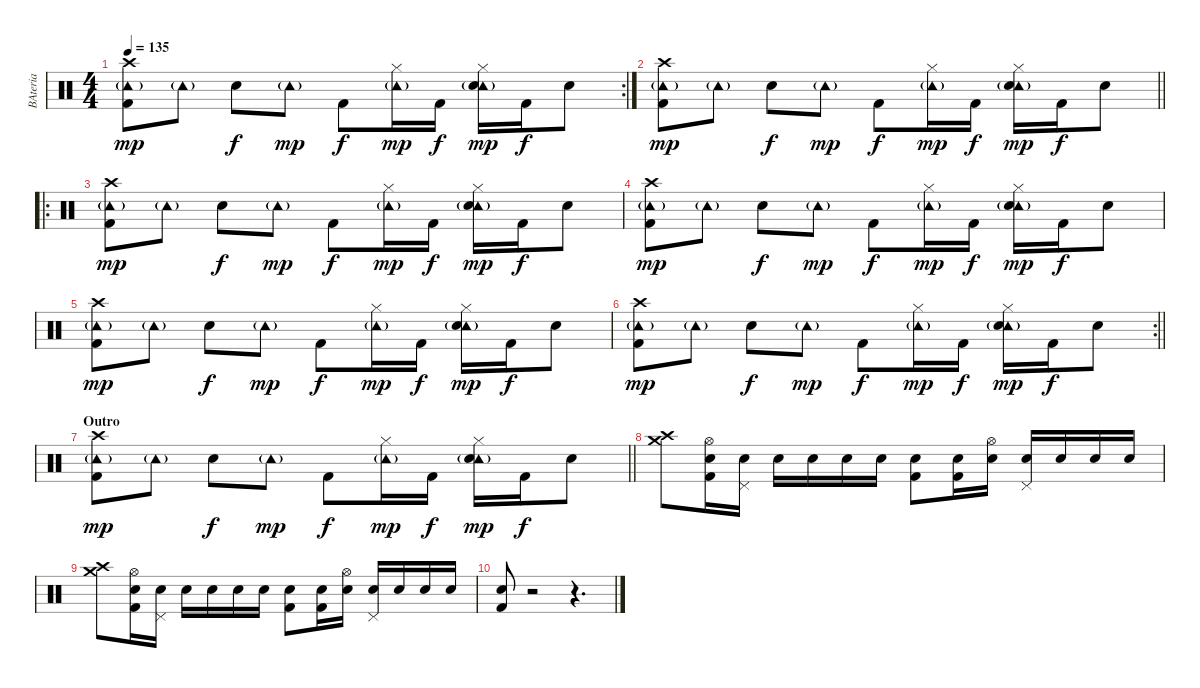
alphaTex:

\track ("BAteria" "BAteria") {instrument percussion}
\staff {score}
\articulation defaults
\rc 2
\ts (4 4)
\tempo 135
\clef neutral
\ks c
("Crash high (hit)" "Tambourine (hit)"{g} "Kick (hit) 2").8{dy mp} "Tambourine (hit)"{g}.8 "Electric Snare (hit)".8{dy f} "Tambourine (hit)"{g}.8{dy mp} "Kick (hit) 2".8{dy f} ("Hi-Hat (closed)" "Tambourine (hit)"{g}).16{dy mp} "Kick (hit) 2".16{dy f} ("Hi-Hat (closed)" "Tambourine (hit)"{g} "Electric Snare (hit)").16{dy mp} "Kick (hit) 2".16{dy f} "Electric Snare (hit)".8 |
\barLineRight lightlight
("Crash high (hit)" "Tambourine (hit)"{g} "Kick (hit) 2").8{dy mp} "Tambourine (hit)"{g}.8 "Electric Snare (hit)".8{dy f} "Tambourine (hit)"{g}.8{dy mp} "Kick (hit) 2".8{dy f} ("Hi-Hat (closed)" "Tambourine (hit)"{g}).16{dy mp} "Kick (hit) 2".16{dy f} ("Hi-Hat (closed)" "Tambourine (hit)"{g} "Electric Snare (hit)").16{dy mp} "Kick (hit) 2".16{dy f} "Electric Snare (hit)".8 |
\ro
("Crash high (hit)" "Tambourine (hit)"{g} "Kick (hit) 2").8{dy mp} "Tambourine (hit)"{g}.8 "Electric Snare (hit)".8{dy f} "Tambourine (hit)"{g}.8{dy mp} "Kick (hit) 2".8{dy f} ("Hi-Hat (closed)" "Tambourine (hit)"{g}).16{dy mp} "Kick (hit) 2".16{dy f} ("Hi-Hat (closed)" "Tambourine (hit)"{g} "Electric Snare (hit)").16{dy mp} "Kick (hit) 2".16{dy f} "Electric Snare (hit)".8 |
("Crash high (hit)" "Tambourine (hit)"{g} "Kick (hit) 2").8{dy mp} "Tambourine (hit)"{g}.8 "Electric Snare (hit)".8{dy f} "Tambourine (hit)"{g}.8{dy mp} "Kick (hit) 2".8{dy f} ("Hi-Hat (closed)" "Tambourine (hit)"{g}).16{dy mp} "Kick (hit) 2".16{dy f} ("Hi-Hat (closed)" "Tambourine (hit)"{g} "Electric Snare (hit)").16{dy mp} "Kick (hit) 2".16{dy f} "Electric Snare (hit)".8 |
("Crash high (hit)" "Tambourine (hit)"{g} "Kick (hit) 2").8{dy mp} "Tambourine (hit)"{g}.8 "Electric Snare (hit)".8{dy f} "Tambourine (hit)"{g}.8{dy mp} "Kick (hit) 2".8{dy f} ("Hi-Hat (closed)" "Tambourine (hit)"{g}).16{dy mp} "Kick (hit) 2".16{dy f} ("Hi-Hat (closed)" "Tambourine (hit)"{g} "Electric Snare (hit)").16{dy mp} "Kick (hit) 2".16{dy f} "Electric Snare (hit)".8 |
\rc 2
\barLineRight lightlight
("Crash high (hit)" "Tambourine (hit)"{g} "Kick (hit) 2").8{dy mp} "Tambourine (hit)"{g}.8 "Electric Snare (hit)".8{dy f} "Tambourine (hit)"{g}.8{dy mp} "Kick (hit) 2".8{dy f} ("Hi-Hat (closed)" "Tambourine (hit)"{g}).16{dy mp} "Kick (hit) 2".16{dy f} ("Hi-Hat (closed)" "Tambourine (hit)"{g} "Electric Snare (hit)").16{dy mp} "Kick (hit) 2".16{dy f} "Electric Snare (hit)".8 |
\section ("" "Outro")
\barLineRight lightlight
("Crash high (hit)" "Tambourine (hit)"{g} "Kick (hit) 2").8{dy mp} "Tambourine (hit)"{g}.8 "Electric Snare (hit)".8{dy f} "Tambourine (hit)"{g}.8{dy mp} "Kick (hit) 2".8{dy f} ("Hi-Hat (closed)" "Tambourine (hit)"{g}).16{dy mp} "Kick (hit) 2".16{dy f} ("Hi-Hat (closed)" "Tambourine (hit)"{g} "Electric Snare (hit)").16{dy mp} "Kick (hit) 2".16{dy f} "Electric Snare (hit)".8 |
("Crash high (hit)" "Crash medium (hit)").8 ("Hi-Hat (open)" "Electric Snare (hit)" "Kick (hit) 2").16 ("Pedal Hi-Hat (hit)" "Electric Snare (hit)").16 "Electric Snare (hit)".16 "Electric Snare (hit)".16 "Electric Snare (hit)".16 "Electric Snare (hit)".16 ("Electric Snare (hit)" "Kick (hit) 2").8 ("Electric Snare (hit)" "Kick (hit) 2").16 ("Hi-Hat (open)" "Electric Snare (hit)").16 ("Pedal Hi-Hat (hit)" "Electric Snare (hit)").16 "Electric Snare (hit)".16 "Electric Snare (hit)".16 "Electric Snare (hit)".16 |
("Crash high (hit)" "Crash medium (hit)").8 ("Hi-Hat (open)" "Electric Snare (hit)" "Kick (hit) 2").16 ("Pedal Hi-Hat (hit)" "Electric Snare (hit)").16 "Electric Snare (hit)".16 "Electric Snare (hit)".16 "Electric Snare (hit)".16 "Electric Snare (hit)".16 ("Electric Snare (hit)" "Kick (hit) 2").8 ("Electric Snare (hit)" "Kick (hit) 2").16 ("Hi-Hat (open)" "Electric Snare (hit)").16 ("Pedal Hi-Hat (hit)" "Electric Snare (hit)").16 "Electric Snare (hit)".16 "Electric Snare (hit)".16 "Electric Snare (hit)".16 |
("Electric Snare (hit)" "Kick (hit) 2").8 r.2 r.4{d}
